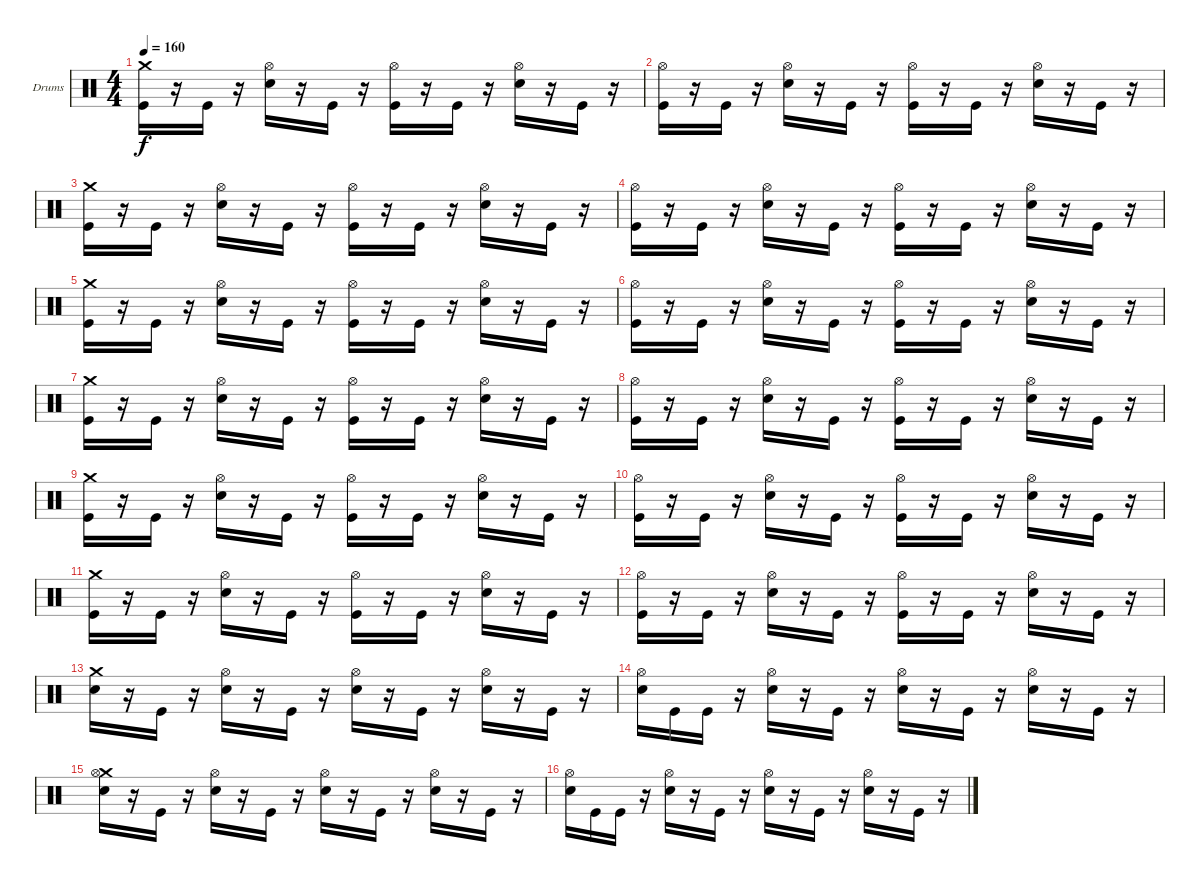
\bracketExtendMode groupsimilarinstruments
\firstSystemTrackNameOrientation horizontal
\otherSystemsTrackNameOrientation horizontal
\track ("Drumkit" "Drums") {instrument percussion}
\staff {score}
\articulation defaults
\ts (4 4)
\tempo 160
\clef neutral
\ks c
("Crash medium (hit)" "Kick (hit)").16{dy f} r.16 "Kick (hit)".16 r.16 ("Hi-Hat (open)" "Snare (hit) 2").16 r.16 "Kick (hit)".16 r.16 ("Hi-Hat (open)" "Kick (hit)").16 r.16 "Kick (hit)".16 r.16 ("Hi-Hat (open)" "Snare (hit) 2").16 r.16 "Kick (hit)".16 r.16 |
("Hi-Hat (open)" "Kick (hit)").16 r.16 "Kick (hit)".16 r.16 ("Hi-Hat (open)" "Snare (hit) 2").16 r.16 "Kick (hit)".16 r.16 ("Hi-Hat (open)" "Kick (hit)").16 r.16 "Kick (hit)".16 r.16 ("Hi-Hat (open)" "Snare (hit) 2").16 r.16 "Kick (hit)".16 r.16 |
("Crash medium (hit)" "Kick (hit)").16 r.16 "Kick (hit)".16 r.16 ("Hi-Hat (open)" "Snare (hit) 2").16 r.16 "Kick (hit)".16 r.16 ("Hi-Hat (open)" "Kick (hit)").16 r.16 "Kick (hit)".16 r.16 ("Hi-Hat (open)" "Snare (hit) 2").16 r.16 "Kick (hit)".16 r.16 |
("Hi-Hat (open)" "Kick (hit)").16 r.16 "Kick (hit)".16 r.16 ("Hi-Hat (open)" "Snare (hit) 2").16 r.16 "Kick (hit)".16 r.16 ("Hi-Hat (open)" "Kick (hit)").16 r.16 "Kick (hit)".16 r.16 ("Hi-Hat (open)" "Snare (hit) 2").16 r.16 "Kick (hit)".16 r.16 |
("Crash medium (hit)" "Kick (hit)").16 r.16 "Kick (hit)".16 r.16 ("Hi-Hat (open)" "Snare (hit) 2").16 r.16 "Kick (hit)".16 r.16 ("Hi-Hat (open)" "Kick (hit)").16 r.16 "Kick (hit)".16 r.16 ("Hi-Hat (open)" "Snare (hit) 2").16 r.16 "Kick (hit)".16 r.16 |
("Hi-Hat (open)" "Kick (hit)").16 r.16 "Kick (hit)".16 r.16 ("Hi-Hat (open)" "Snare (hit) 2").16 r.16 "Kick (hit)".16 r.16 ("Hi-Hat (open)" "Kick (hit)").16 r.16 "Kick (hit)".16 r.16 ("Hi-Hat (open)" "Snare (hit) 2").16 r.16 "Kick (hit)".16 r.16 |
("Crash medium (hit)" "Kick (hit)").16 r.16 "Kick (hit)".16 r.16 ("Hi-Hat (open)" "Snare (hit) 2").16 r.16 "Kick (hit)".16 r.16 ("Hi-Hat (open)" "Kick (hit)").16 r.16 "Kick (hit)".16 r.16 ("Hi-Hat (open)" "Snare (hit) 2").16 r.16 "Kick (hit)".16 r.16 |
("Hi-Hat (open)" "Kick (hit)").16 r.16 "Kick (hit)".16 r.16 ("Hi-Hat (open)" "Snare (hit) 2").16 r.16 "Kick (hit)".16 r.16 ("Hi-Hat (open)" "Kick (hit)").16 r.16 "Kick (hit)".16 r.16 ("Hi-Hat (open)" "Snare (hit) 2").16 r.16 "Kick (hit)".16 r.16 |
("Crash medium (hit)" "Kick (hit)").16 r.16 "Kick (hit)".16 r.16 ("Hi-Hat (open)" "Snare (hit) 2").16 r.16 "Kick (hit)".16 r.16 ("Hi-Hat (open)" "Kick (hit)").16 r.16 "Kick (hit)".16 r.16 ("Hi-Hat (open)" "Snare (hit) 2").16 r.16 "Kick (hit)".16 r.16 |
("Hi-Hat (open)" "Kick (hit)").16 r.16 "Kick (hit)".16 r.16 ("Hi-Hat (open)" "Snare (hit) 2").16 r.16 "Kick (hit)".16 r.16 ("Hi-Hat (open)" "Kick (hit)").16 r.16 "Kick (hit)".16 r.16 ("Hi-Hat (open)" "Snare (hit) 2").16 r.16 "Kick (hit)".16 r.16 |
("Crash medium (hit)" "Kick (hit)").16 r.16 "Kick (hit)".16 r.16 ("Hi-Hat (open)" "Snare (hit) 2").16 r.16 "Kick (hit)".16 r.16 ("Hi-Hat (open)" "Kick (hit)").16 r.16 "Kick (hit)".16 r.16 ("Hi-Hat (open)" "Snare (hit) 2").16 r.16 "Kick (hit)".16 r.16 |
("Hi-Hat (open)" "Kick (hit)").16 r.16 "Kick (hit)".16 r.16 ("Hi-Hat (open)" "Snare (hit) 2").16 r.16 "Kick (hit)".16 r.16 ("Hi-Hat (open)" "Kick (hit)").16 r.16 "Kick (hit)".16 r.16 ("Hi-Hat (open)" "Snare (hit) 2").16 r.16 "Kick (hit)".16 r.16 |
("Crash medium (hit)" "Snare (hit) 2").16 r.16 "Kick (hit)".16 r.16 ("Hi-Hat (open)" "Snare (hit) 2").16 r.16 "Kick (hit)".16 r.16 ("Hi-Hat (open)" "Snare (hit) 2").16 r.16 "Kick (hit)".16 r.16 ("Hi-Hat (open)" "Snare (hit) 2").16 r.16 "Kick (hit)".16 r.16 |
("Hi-Hat (open)" "Snare (hit) 2").16 "Kick (hit)".16 "Kick (hit)".16 r.16 ("Hi-Hat (open)" "Snare (hit) 2").16 r.16 "Kick (hit)".16 r.16 ("Hi-Hat (open)" "Snare (hit) 2").16 r.16 "Kick (hit)".16 r.16 ("Hi-Hat (open)" "Snare (hit) 2").16 r.16 "Kick (hit)".16 r.16 |
("Crash medium (hit)" "Hi-Hat (open)" "Snare (hit) 2").16 r.16 "Kick (hit)".16 r.16 ("Hi-Hat (open)" "Snare (hit) 2").16 r.16 "Kick (hit)".16 r.16 ("Hi-Hat (open)" "Snare (hit) 2").16 r.16 "Kick (hit)".16 r.16 ("Hi-Hat (open)" "Snare (hit) 2").16 r.16 "Kick (hit)".16 r.16 |
("Hi-Hat (open)" "Snare (hit) 2").16 "Kick (hit)".16 "Kick (hit)".16 r.16 ("Hi-Hat (open)" "Snare (hit) 2").16 r.16 "Kick (hit)".16 r.16 ("Hi-Hat (open)" "Snare (hit) 2").16 r.16 "Kick (hit)".16 r.16 ("Hi-Hat (open)" "Snare (hit) 2").16 r.16 "Kick (hit)".16 r.16
